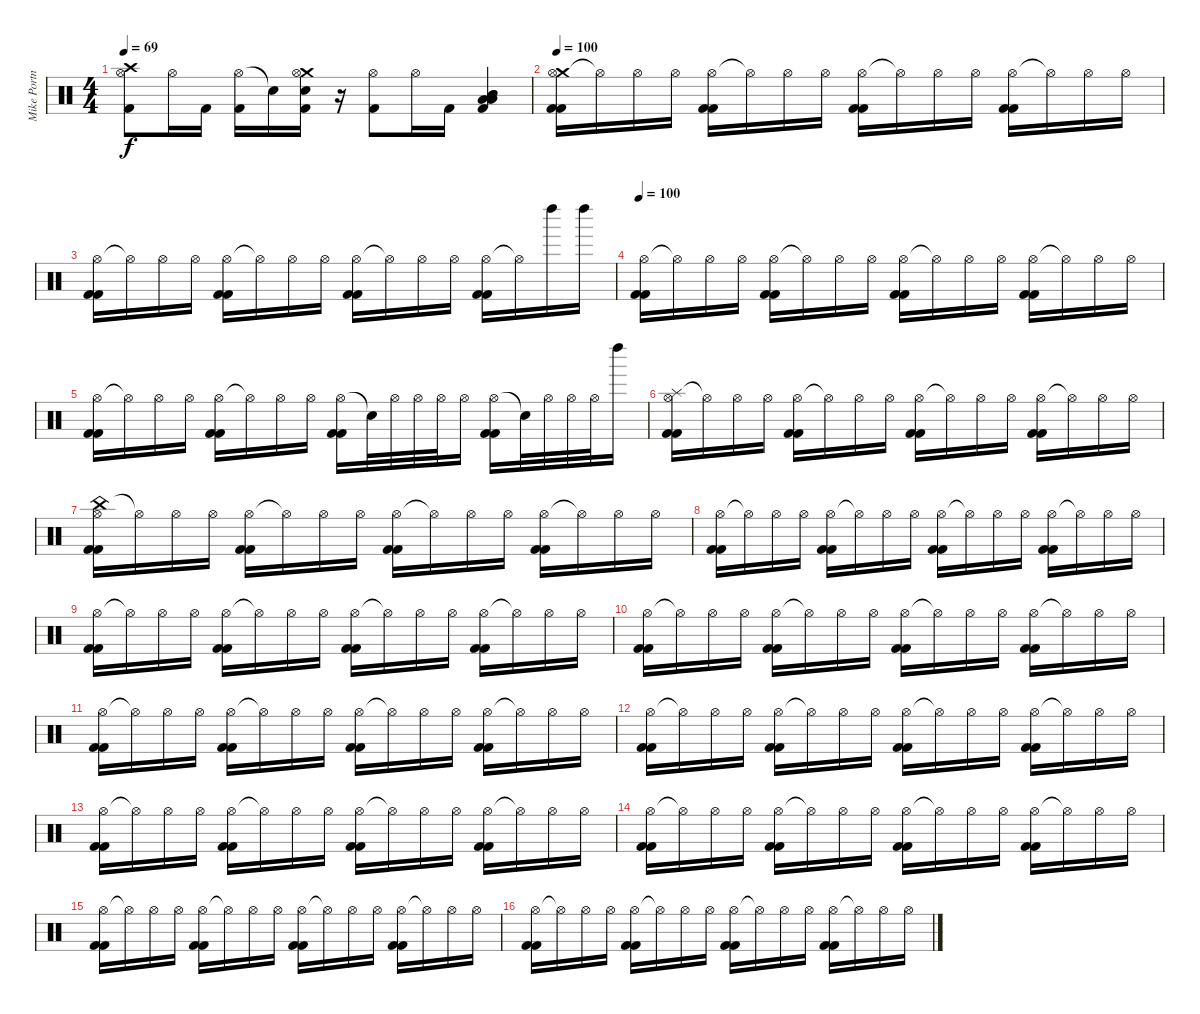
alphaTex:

\track ("Mike Portnoy" "Mike Portn") {instrument percussion}
\staff {score}
\articulation defaults
\ts (4 4)
\tempo 69
\clef neutral
\ks c
("Crash high (hit)" "Hi-Hat (open)" "Kick (hit) 2").8{dy f} "Hi-Hat (open)".16 "Kick (hit) 2".16 ("Hi-Hat (open)" "Kick (hit) 2").16 "Snare (hit)"{t}.16 ("Crash medium (hit)" "Hi-Hat (open)" "Electric Snare (hit)" "Kick (hit) 2").16 r.16 ("Hi-Hat (open)" "Kick (hit) 2").8 "Hi-Hat (open)".16 "Kick (hit) 2".16 ("Mid Tom (hit)" "Mid Tom (hit)" "Low Floor Tom (hit)" "Low Floor Tom (hit)" "Kick (hit) 2").4 |
\tempo 100
("Crash medium (hit)" "Hi-Hat (open)" "Kick (hit) 2" "Kick (hit) 2").16 "Hi-Hat (open)"{t}.16 "Hi-Hat (open)".16 "Hi-Hat (open)".16 ("Hi-Hat (open)" "Kick (hit) 2" "Kick (hit) 2").16 "Hi-Hat (open)"{t}.16 "Hi-Hat (open)".16 "Hi-Hat (open)".16 ("Hi-Hat (open)" "Kick (hit) 2" "Kick (hit) 2").16 "Hi-Hat (open)"{t}.16 "Hi-Hat (open)".16 "Hi-Hat (open)".16 ("Hi-Hat (open)" "Kick (hit) 2" "Kick (hit) 2").16 "Hi-Hat (open)"{t}.16 "Hi-Hat (open)".16 "Hi-Hat (open)".16 |
("Hi-Hat (open)" "Kick (hit) 2" "Kick (hit) 2").16 "Hi-Hat (open)"{t}.16 "Hi-Hat (open)".16 "Hi-Hat (open)".16 ("Hi-Hat (open)" "Kick (hit) 2" "Kick (hit) 2").16 "Hi-Hat (open)"{t}.16 "Hi-Hat (open)".16 "Hi-Hat (open)".16 ("Hi-Hat (open)" "Kick (hit) 2" "Kick (hit) 2").16 "Hi-Hat (open)"{t}.16 "Hi-Hat (open)".16 "Hi-Hat (open)".16 ("Hi-Hat (open)" "Kick (hit) 2" "Kick (hit) 2").16 "Hi-Hat (open)"{t}.16 "Left Maraca (hit)".16 "Left Maraca (hit)".16 |
\tempo 100
("Hi-Hat (open)" "Kick (hit) 2" "Kick (hit) 2").16 "Hi-Hat (open)"{t}.16 "Hi-Hat (open)".16 "Hi-Hat (open)".16 ("Hi-Hat (open)" "Kick (hit) 2" "Kick (hit) 2").16 "Hi-Hat (open)"{t}.16 "Hi-Hat (open)".16 "Hi-Hat (open)".16 ("Hi-Hat (open)" "Kick (hit) 2" "Kick (hit) 2").16 "Hi-Hat (open)"{t}.16 "Hi-Hat (open)".16 "Hi-Hat (open)".16 ("Hi-Hat (open)" "Kick (hit) 2" "Kick (hit) 2").16 "Hi-Hat (open)"{t}.16 "Hi-Hat (open)".16 "Hi-Hat (open)".16 |
("Hi-Hat (open)" "Kick (hit) 2" "Kick (hit) 2").16 "Hi-Hat (open)"{t}.16 "Hi-Hat (open)".16 "Hi-Hat (open)".16 ("Hi-Hat (open)" "Kick (hit) 2" "Kick (hit) 2").16 "Hi-Hat (open)"{t}.16 "Hi-Hat (open)".16 "Hi-Hat (open)".16 ("Hi-Hat (open)" "Kick (hit) 2" "Kick (hit) 2").16 "Snare (hit)"{t}.32 "Hi-Hat (open)".32 "Hi-Hat (open)".32 "Hi-Hat (open)".32 "Hi-Hat (open)".16 ("Hi-Hat (open)" "Kick (hit) 2" "Kick (hit) 2").16 "Snare (hit)"{t}.32 "Hi-Hat (open)".32 "Hi-Hat (open)".32 "Hi-Hat (open)".32 "Left Maraca (hit)".16 |
("Splash (hit)" "Hi-Hat (open)" "Kick (hit) 2" "Kick (hit) 2").16 "Hi-Hat (open)"{t}.16 "Hi-Hat (open)".16 "Hi-Hat (open)".16 ("Hi-Hat (open)" "Kick (hit) 2" "Kick (hit) 2").16 "Hi-Hat (open)"{t}.16 "Hi-Hat (open)".16 "Hi-Hat (open)".16 ("Hi-Hat (open)" "Kick (hit) 2" "Kick (hit) 2").16 "Hi-Hat (open)"{t}.16 "Hi-Hat (open)".16 "Hi-Hat (open)".16 ("Hi-Hat (open)" "Kick (hit) 2" "Kick (hit) 2").16 "Hi-Hat (open)"{t}.16 "Hi-Hat (open)".16 "Hi-Hat (open)".16 |
("China (hit)" "Hi-Hat (open)" "Kick (hit) 2" "Kick (hit) 2").16 "Hi-Hat (open)"{t}.16 "Hi-Hat (open)".16 "Hi-Hat (open)".16 ("Hi-Hat (open)" "Kick (hit) 2" "Kick (hit) 2").16 "Hi-Hat (open)"{t}.16 "Hi-Hat (open)".16 "Hi-Hat (open)".16 ("Hi-Hat (open)" "Kick (hit) 2" "Kick (hit) 2").16 "Hi-Hat (open)"{t}.16 "Hi-Hat (open)".16 "Hi-Hat (open)".16 ("Hi-Hat (open)" "Kick (hit) 2" "Kick (hit) 2").16 "Hi-Hat (open)"{t}.16 "Hi-Hat (open)".16 "Hi-Hat (open)".16 |
("Hi-Hat (open)" "Kick (hit) 2" "Kick (hit) 2").16 "Hi-Hat (open)"{t}.16 "Hi-Hat (open)".16 "Hi-Hat (open)".16 ("Hi-Hat (open)" "Kick (hit) 2" "Kick (hit) 2").16 "Hi-Hat (open)"{t}.16 "Hi-Hat (open)".16 "Hi-Hat (open)".16 ("Hi-Hat (open)" "Kick (hit) 2" "Kick (hit) 2").16 "Hi-Hat (open)"{t}.16 "Hi-Hat (open)".16 "Hi-Hat (open)".16 ("Hi-Hat (open)" "Kick (hit) 2" "Kick (hit) 2").16 "Hi-Hat (open)"{t}.16 "Hi-Hat (open)".16 "Hi-Hat (open)".16 |
("Hi-Hat (open)" "Kick (hit) 2" "Kick (hit) 2").16 "Hi-Hat (open)"{t}.16 "Hi-Hat (open)".16 "Hi-Hat (open)".16 ("Hi-Hat (open)" "Kick (hit) 2" "Kick (hit) 2").16 "Hi-Hat (open)"{t}.16 "Hi-Hat (open)".16 "Hi-Hat (open)".16 ("Hi-Hat (open)" "Kick (hit) 2" "Kick (hit) 2").16 "Hi-Hat (open)"{t}.16 "Hi-Hat (open)".16 "Hi-Hat (open)".16 ("Hi-Hat (open)" "Kick (hit) 2" "Kick (hit) 2").16 "Hi-Hat (open)"{t}.16 "Hi-Hat (open)".16 "Hi-Hat (open)".16 |
("Hi-Hat (open)" "Kick (hit) 2" "Kick (hit) 2").16 "Hi-Hat (open)"{t}.16 "Hi-Hat (open)".16 "Hi-Hat (open)".16 ("Hi-Hat (open)" "Kick (hit) 2" "Kick (hit) 2").16 "Hi-Hat (open)"{t}.16 "Hi-Hat (open)".16 "Hi-Hat (open)".16 ("Hi-Hat (open)" "Kick (hit) 2" "Kick (hit) 2").16 "Hi-Hat (open)"{t}.16 "Hi-Hat (open)".16 "Hi-Hat (open)".16 ("Hi-Hat (open)" "Kick (hit) 2" "Kick (hit) 2").16 "Hi-Hat (open)"{t}.16 "Hi-Hat (open)".16 "Hi-Hat (open)".16 |
("Hi-Hat (open)" "Kick (hit) 2" "Kick (hit) 2").16 "Hi-Hat (open)"{t}.16 "Hi-Hat (open)".16 "Hi-Hat (open)".16 ("Hi-Hat (open)" "Kick (hit) 2" "Kick (hit) 2").16 "Hi-Hat (open)"{t}.16 "Hi-Hat (open)".16 "Hi-Hat (open)".16 ("Hi-Hat (open)" "Kick (hit) 2" "Kick (hit) 2").16 "Hi-Hat (open)"{t}.16 "Hi-Hat (open)".16 "Hi-Hat (open)".16 ("Hi-Hat (open)" "Kick (hit) 2" "Kick (hit) 2").16 "Hi-Hat (open)"{t}.16 "Hi-Hat (open)".16 "Hi-Hat (open)".16 |
("Hi-Hat (open)" "Kick (hit) 2" "Kick (hit) 2").16 "Hi-Hat (open)"{t}.16 "Hi-Hat (open)".16 "Hi-Hat (open)".16 ("Hi-Hat (open)" "Kick (hit) 2" "Kick (hit) 2").16 "Hi-Hat (open)"{t}.16 "Hi-Hat (open)".16 "Hi-Hat (open)".16 ("Hi-Hat (open)" "Kick (hit) 2" "Kick (hit) 2").16 "Hi-Hat (open)"{t}.16 "Hi-Hat (open)".16 "Hi-Hat (open)".16 ("Hi-Hat (open)" "Kick (hit) 2" "Kick (hit) 2").16 "Hi-Hat (open)"{t}.16 "Hi-Hat (open)".16 "Hi-Hat (open)".16 |
("Hi-Hat (open)" "Kick (hit) 2" "Kick (hit) 2").16 "Hi-Hat (open)"{t}.16 "Hi-Hat (open)".16 "Hi-Hat (open)".16 ("Hi-Hat (open)" "Kick (hit) 2" "Kick (hit) 2").16 "Hi-Hat (open)"{t}.16 "Hi-Hat (open)".16 "Hi-Hat (open)".16 ("Hi-Hat (open)" "Kick (hit) 2" "Kick (hit) 2").16 "Hi-Hat (open)"{t}.16 "Hi-Hat (open)".16 "Hi-Hat (open)".16 ("Hi-Hat (open)" "Kick (hit) 2" "Kick (hit) 2").16 "Hi-Hat (open)"{t}.16 "Hi-Hat (open)".16 "Hi-Hat (open)".16 |
("Hi-Hat (open)" "Kick (hit) 2" "Kick (hit) 2").16 "Hi-Hat (open)"{t}.16 "Hi-Hat (open)".16 "Hi-Hat (open)".16 ("Hi-Hat (open)" "Kick (hit) 2" "Kick (hit) 2").16 "Hi-Hat (open)"{t}.16 "Hi-Hat (open)".16 "Hi-Hat (open)".16 ("Hi-Hat (open)" "Kick (hit) 2" "Kick (hit) 2").16 "Hi-Hat (open)"{t}.16 "Hi-Hat (open)".16 "Hi-Hat (open)".16 ("Hi-Hat (open)" "Kick (hit) 2" "Kick (hit) 2").16 "Hi-Hat (open)"{t}.16 "Hi-Hat (open)".16 "Hi-Hat (open)".16 |
("Hi-Hat (open)" "Kick (hit) 2" "Kick (hit) 2").16 "Hi-Hat (open)"{t}.16 "Hi-Hat (open)".16 "Hi-Hat (open)".16 ("Hi-Hat (open)" "Kick (hit) 2" "Kick (hit) 2").16 "Hi-Hat (open)"{t}.16 "Hi-Hat (open)".16 "Hi-Hat (open)".16 ("Hi-Hat (open)" "Kick (hit) 2" "Kick (hit) 2").16 "Hi-Hat (open)"{t}.16 "Hi-Hat (open)".16 "Hi-Hat (open)".16 ("Hi-Hat (open)" "Kick (hit) 2" "Kick (hit) 2").16 "Hi-Hat (open)"{t}.16 "Hi-Hat (open)".16 "Hi-Hat (open)".16 |
("Hi-Hat (open)" "Kick (hit) 2" "Kick (hit) 2").16 "Hi-Hat (open)"{t}.16 "Hi-Hat (open)".16 "Hi-Hat (open)".16 ("Hi-Hat (open)" "Kick (hit) 2" "Kick (hit) 2").16 "Hi-Hat (open)"{t}.16 "Hi-Hat (open)".16 "Hi-Hat (open)".16 ("Hi-Hat (open)" "Kick (hit) 2" "Kick (hit) 2").16 "Hi-Hat (open)"{t}.16 "Hi-Hat (open)".16 "Hi-Hat (open)".16 ("Hi-Hat (open)" "Kick (hit) 2" "Kick (hit) 2").16 "Hi-Hat (open)"{t}.16 "Hi-Hat (open)".16 "Hi-Hat (open)".16
